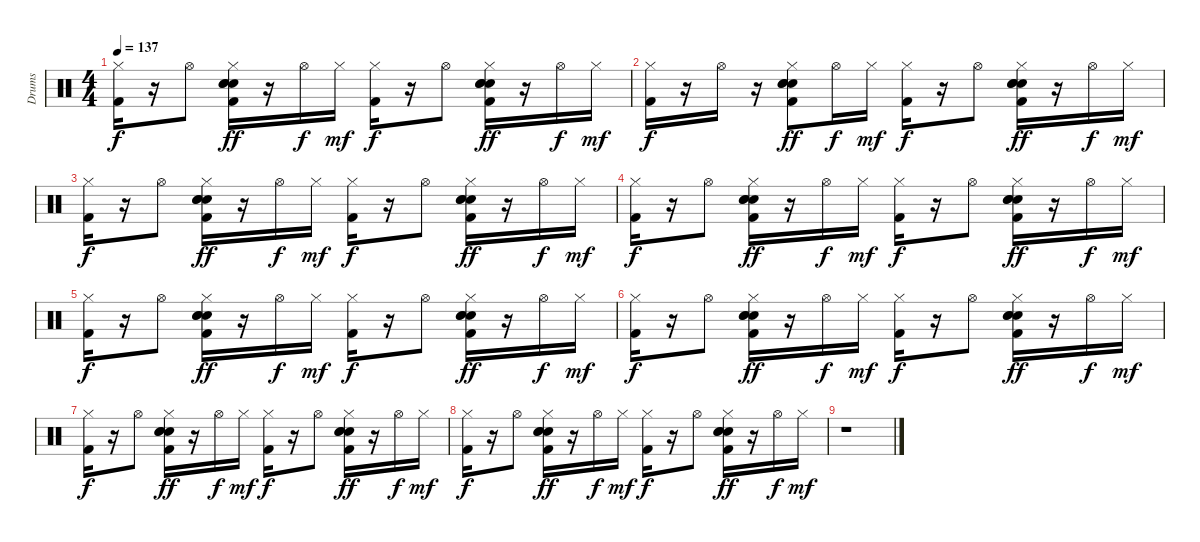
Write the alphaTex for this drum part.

\track ("Drums" "Drums") {instrument percussion}
\staff {score}
\articulation defaults
\ts (4 4)
\tempo 137
\clef neutral
\ks c
("Kick (hit) 2" "Hi-Hat (closed)").16{dy f} r.16 "Hi-Hat (open)".8 ("Electric Snare (hit)" "Kick (hit) 2" "Hand Clap (hit)" "Hi-Hat (closed)" "Electric Snare (hit)").16{dy ff} r.16 "Hi-Hat (open)".16{dy f} "Hi-Hat (closed)".16{dy mf} ("Kick (hit) 2" "Hi-Hat (closed)").16{dy f} r.16 "Hi-Hat (open)".8 ("Electric Snare (hit)" "Kick (hit) 2" "Hand Clap (hit)" "Hi-Hat (closed)" "Electric Snare (hit)").16{dy ff} r.16 "Hi-Hat (open)".16{dy f} "Hi-Hat (closed)".16{dy mf} |
("Kick (hit) 2" "Hi-Hat (closed)").16{dy f} r.16 "Hi-Hat (open)".16 r.16 ("Electric Snare (hit)" "Kick (hit) 2" "Hand Clap (hit)" "Hi-Hat (closed)" "Electric Snare (hit)").8{dy ff} "Hi-Hat (open)".16{dy f} "Hi-Hat (closed)".16{dy mf} ("Kick (hit) 2" "Hi-Hat (closed)").16{dy f} r.16 "Hi-Hat (open)".8 ("Electric Snare (hit)" "Kick (hit) 2" "Hand Clap (hit)" "Hi-Hat (closed)" "Electric Snare (hit)").16{dy ff} r.16 "Hi-Hat (open)".16{dy f} "Hi-Hat (closed)".16{dy mf} |
("Kick (hit) 2" "Hi-Hat (closed)").16{dy f} r.16 "Hi-Hat (open)".8 ("Electric Snare (hit)" "Kick (hit) 2" "Hand Clap (hit)" "Hi-Hat (closed)" "Electric Snare (hit)").16{dy ff} r.16 "Hi-Hat (open)".16{dy f} "Hi-Hat (closed)".16{dy mf} ("Kick (hit) 2" "Hi-Hat (closed)").16{dy f} r.16 "Hi-Hat (open)".8 ("Electric Snare (hit)" "Kick (hit) 2" "Hand Clap (hit)" "Hi-Hat (closed)" "Electric Snare (hit)").16{dy ff} r.16 "Hi-Hat (open)".16{dy f} "Hi-Hat (closed)".16{dy mf} |
("Kick (hit) 2" "Hi-Hat (closed)").16{dy f} r.16 "Hi-Hat (open)".8 ("Electric Snare (hit)" "Kick (hit) 2" "Hand Clap (hit)" "Hi-Hat (closed)" "Electric Snare (hit)").16{dy ff} r.16 "Hi-Hat (open)".16{dy f} "Hi-Hat (closed)".16{dy mf} ("Kick (hit) 2" "Hi-Hat (closed)").16{dy f} r.16 "Hi-Hat (open)".8 ("Electric Snare (hit)" "Kick (hit) 2" "Hand Clap (hit)" "Hi-Hat (closed)" "Electric Snare (hit)").16{dy ff} r.16 "Hi-Hat (open)".16{dy f} "Hi-Hat (closed)".16{dy mf} |
("Kick (hit) 2" "Hi-Hat (closed)").16{dy f volume 12} r.16 "Hi-Hat (open)".8{volume 12} ("Electric Snare (hit)" "Kick (hit) 2" "Hand Clap (hit)" "Hi-Hat (closed)" "Electric Snare (hit)").16{dy ff volume 11} r.16 "Hi-Hat (open)".16{dy f volume 11} "Hi-Hat (closed)".16{dy mf volume 10} ("Kick (hit) 2" "Hi-Hat (closed)").16{dy f volume 10} r.16 "Hi-Hat (open)".8{volume 10} ("Electric Snare (hit)" "Kick (hit) 2" "Hand Clap (hit)" "Hi-Hat (closed)" "Electric Snare (hit)").16{dy ff volume 10} r.16 "Hi-Hat (open)".16{dy f volume 9} "Hi-Hat (closed)".16{dy mf volume 9} |
("Kick (hit) 2" "Hi-Hat (closed)").16{dy f volume 9} r.16 "Hi-Hat (open)".8{volume 8} ("Electric Snare (hit)" "Kick (hit) 2" "Hand Clap (hit)" "Hi-Hat (closed)" "Electric Snare (hit)").16{dy ff volume 8} r.16 "Hi-Hat (open)".16{dy f volume 8} "Hi-Hat (closed)".16{dy mf volume 8} ("Kick (hit) 2" "Hi-Hat (closed)").16{dy f volume 7} r.16 "Hi-Hat (open)".8{volume 7} ("Electric Snare (hit)" "Kick (hit) 2" "Hand Clap (hit)" "Hi-Hat (closed)" "Electric Snare (hit)").16{dy ff volume 7} r.16 "Hi-Hat (open)".16{dy f volume 6} "Hi-Hat (closed)".16{dy mf volume 6} |
("Kick (hit) 2" "Hi-Hat (closed)").16{dy f volume 6} r.16 "Hi-Hat (open)".8{volume 6} ("Electric Snare (hit)" "Kick (hit) 2" "Hand Clap (hit)" "Hi-Hat (closed)" "Electric Snare (hit)").16{dy ff volume 5} r.16 "Hi-Hat (open)".16{dy f volume 5} "Hi-Hat (closed)".16{dy mf volume 5} ("Kick (hit) 2" "Hi-Hat (closed)").16{dy f volume 4} r.16 "Hi-Hat (open)".8{volume 4} ("Electric Snare (hit)" "Kick (hit) 2" "Hand Clap (hit)" "Hi-Hat (closed)" "Electric Snare (hit)").16{dy ff volume 4} r.16 "Hi-Hat (open)".16{dy f volume 3} "Hi-Hat (closed)".16{dy mf volume 3} |
("Kick (hit) 2" "Hi-Hat (closed)").16{dy f volume 3} r.16 "Hi-Hat (open)".8{volume 3} ("Electric Snare (hit)" "Kick (hit) 2" "Hand Clap (hit)" "Hi-Hat (closed)" "Electric Snare (hit)").16{dy ff volume 2} r.16 "Hi-Hat (open)".16{dy f volume 2} "Hi-Hat (closed)".16{dy mf volume 2} ("Kick (hit) 2" "Hi-Hat (closed)").16{dy f volume 2} r.16 "Hi-Hat (open)".8{volume 1} ("Electric Snare (hit)" "Kick (hit) 2" "Hand Clap (hit)" "Hi-Hat (closed)" "Electric Snare (hit)").16{dy ff volume 1} r.16 "Hi-Hat (open)".16{dy f volume 0} "Hi-Hat (closed)".16{dy mf volume 0} |
r.1
